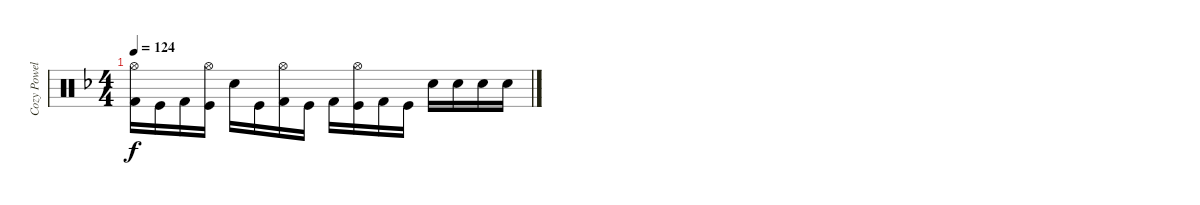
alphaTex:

\track ("Cozy Powell" "Cozy Powel") {instrument percussion}
\staff {score}
\articulation defaults
\ts (4 4)
\tempo 124
\clef neutral
\ks f
("Hi-Hat (open)" "Kick (hit) 2").16{dy f} "Kick (hit)".16 "Kick (hit) 2".16 ("Kick (hit)" "Hi-Hat (open)").16 "Snare (hit) 2".16 "Kick (hit)".16 ("Kick (hit) 2" "Hi-Hat (open)").16 "Kick (hit)".16 "Kick (hit) 2".16 ("Kick (hit)" "Hi-Hat (open)").16 "Kick (hit) 2".16 "Kick (hit)".16 "Snare (hit) 2".16 "Snare (hit) 2".16 "Snare (hit) 2".16 "Snare (hit) 2".16
